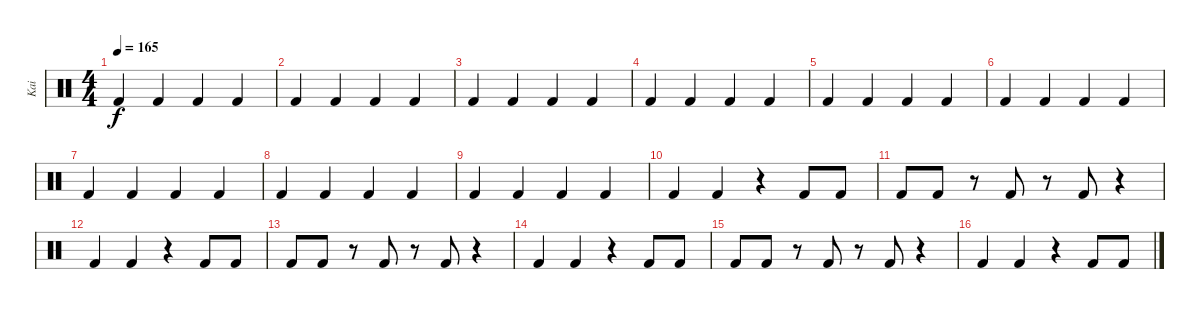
\track ("Kai" "Kai") {instrument percussion}
\staff {score}
\articulation defaults
\ts (4 4)
\tempo 165
\clef neutral
\ks c "Kick (hit) 2".4{dy f} "Kick (hit) 2".4 "Kick (hit) 2".4 "Kick (hit) 2".4
|
"Kick (hit) 2".4 "Kick (hit) 2".4 "Kick (hit) 2".4 "Kick (hit) 2".4 |
"Kick (hit) 2".4 "Kick (hit) 2".4 "Kick (hit) 2".4 "Kick (hit) 2".4 |
"Kick (hit) 2".4 "Kick (hit) 2".4 "Kick (hit) 2".4 "Kick (hit) 2".4 |
"Kick (hit) 2".4 "Kick (hit) 2".4 "Kick (hit) 2".4 "Kick (hit) 2".4 |
"Kick (hit) 2".4 "Kick (hit) 2".4 "Kick (hit) 2".4 "Kick (hit) 2".4 |
"Kick (hit) 2".4 "Kick (hit) 2".4 "Kick (hit) 2".4 "Kick (hit) 2".4 |
"Kick (hit) 2".4 "Kick (hit) 2".4 "Kick (hit) 2".4 "Kick (hit) 2".4 |
"Kick (hit) 2".4 "Kick (hit) 2".4 "Kick (hit) 2".4 "Kick (hit) 2".4 |
"Kick (hit) 2".4 "Kick (hit) 2".4 r.4 "Kick (hit) 2".8 "Kick (hit) 2".8 |
"Kick (hit) 2".8 "Kick (hit) 2".8 r.8 "Kick (hit) 2".8 r.8 "Kick (hit) 2".8 r.4 |
"Kick (hit) 2".4 "Kick (hit) 2".4 r.4 "Kick (hit) 2".8 "Kick (hit) 2".8 |
"Kick (hit) 2".8 "Kick (hit) 2".8 r.8 "Kick (hit) 2".8 r.8 "Kick (hit) 2".8 r.4 |
"Kick (hit) 2".4 "Kick (hit) 2".4 r.4 "Kick (hit) 2".8 "Kick (hit) 2".8 |
"Kick (hit) 2".8 "Kick (hit) 2".8 r.8 "Kick (hit) 2".8 r.8 "Kick (hit) 2".8 r.4 |
"Kick (hit) 2".4 "Kick (hit) 2".4 r.4 "Kick (hit) 2".8 "Kick (hit) 2".8
